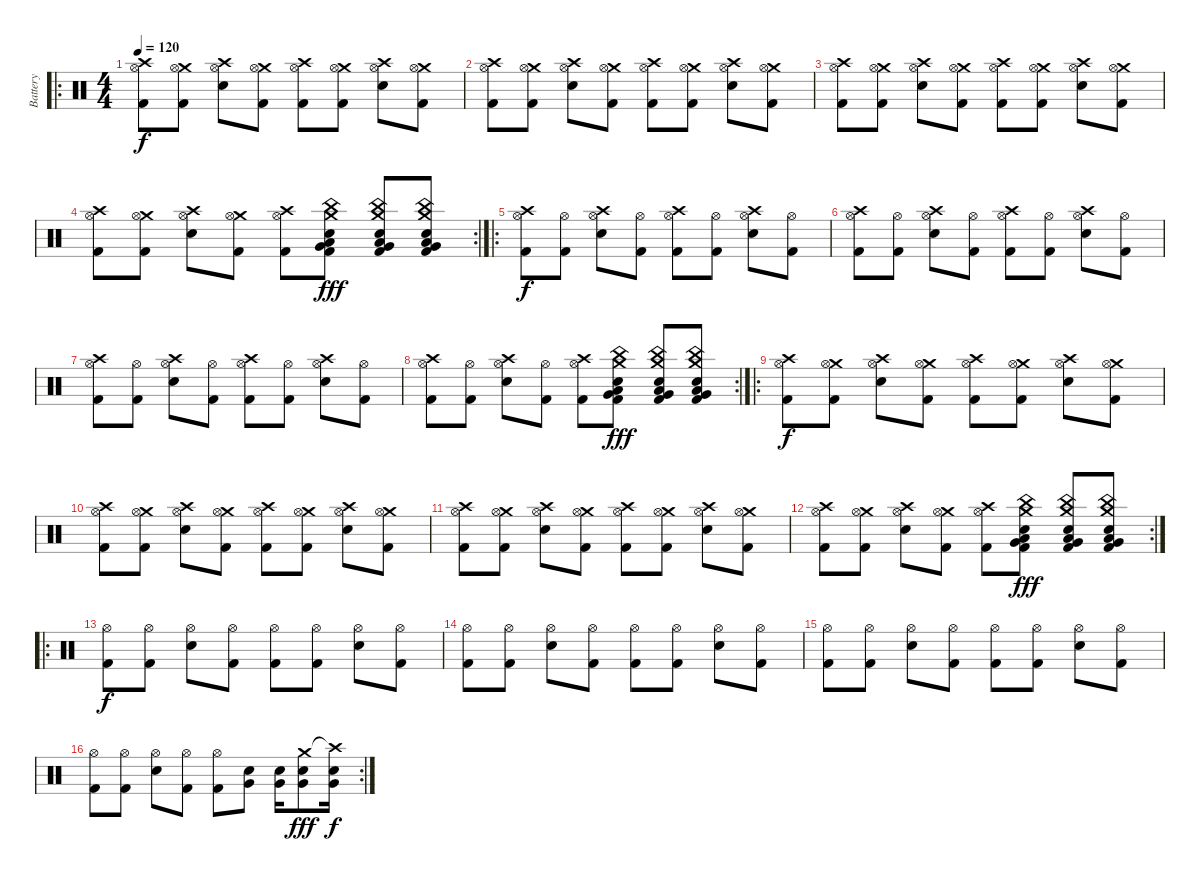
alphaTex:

\track ("Battery" "Battery") {instrument percussion}
\staff {score}
\articulation defaults
\ro
\ts (4 4)
\tempo 120
\clef neutral
\ks c
("Crash high (hit)" "Hi-Hat (open)" "Kick (hit) 2").8{dy f} ("Crash medium (hit)" "Hi-Hat (open)" "Kick (hit) 2").8 ("Crash high (hit)" "Hi-Hat (open)" "Electric Snare (hit)").8 ("Crash medium (hit)" "Hi-Hat (open)" "Kick (hit) 2").8 ("Crash high (hit)" "Hi-Hat (open)" "Kick (hit) 2").8 ("Crash medium (hit)" "Hi-Hat (open)" "Kick (hit) 2").8 ("Crash high (hit)" "Hi-Hat (open)" "Electric Snare (hit)").8 ("Crash medium (hit)" "Hi-Hat (open)" "Kick (hit) 2").8 |
("Crash high (hit)" "Hi-Hat (open)" "Kick (hit) 2").8 ("Crash medium (hit)" "Hi-Hat (open)" "Kick (hit) 2").8 ("Crash high (hit)" "Hi-Hat (open)" "Electric Snare (hit)").8 ("Crash medium (hit)" "Hi-Hat (open)" "Kick (hit) 2").8 ("Crash high (hit)" "Hi-Hat (open)" "Kick (hit) 2").8 ("Crash medium (hit)" "Hi-Hat (open)" "Kick (hit) 2").8 ("Crash high (hit)" "Hi-Hat (open)" "Electric Snare (hit)").8 ("Crash medium (hit)" "Hi-Hat (open)" "Kick (hit) 2").8 |
("Crash high (hit)" "Hi-Hat (open)" "Kick (hit) 2").8 ("Crash medium (hit)" "Hi-Hat (open)" "Kick (hit) 2").8 ("Crash high (hit)" "Hi-Hat (open)" "Electric Snare (hit)").8 ("Crash medium (hit)" "Hi-Hat (open)" "Kick (hit) 2").8 ("Crash high (hit)" "Hi-Hat (open)" "Kick (hit) 2").8 ("Crash medium (hit)" "Hi-Hat (open)" "Kick (hit) 2").8 ("Crash high (hit)" "Hi-Hat (open)" "Electric Snare (hit)").8 ("Crash medium (hit)" "Hi-Hat (open)" "Kick (hit) 2").8 |
\rc 2
("Crash high (hit)" "Hi-Hat (open)" "Kick (hit) 2").8 ("Crash medium (hit)" "Hi-Hat (open)" "Kick (hit) 2").8 ("Crash high (hit)" "Hi-Hat (open)" "Electric Snare (hit)").8 ("Crash medium (hit)" "Hi-Hat (open)" "Kick (hit) 2").8 ("Crash high (hit)" "Hi-Hat (open)" "Kick (hit) 2").8 ("China (hit)" "Crash medium (hit)" "Kick (hit) 2" "Low Floor Tom (hit)" "Very Low Tom (hit)" "Electric Snare (hit)").8{dy fff} ("China (hit)" "Crash medium (hit)" "Kick (hit) 2" "Low Floor Tom (hit)" "Very Low Tom (hit)" "Electric Snare (hit)").8 ("China (hit)" "Crash medium (hit)" "Kick (hit) 2" "Low Floor Tom (hit)" "Very Low Tom (hit)" "Electric Snare (hit)").8 |
\ro
("Crash high (hit)" "Hi-Hat (open)" "Kick (hit) 2").8{dy f} ("Hi-Hat (open)" "Kick (hit) 2").8 ("Crash high (hit)" "Hi-Hat (open)" "Electric Snare (hit)").8 ("Hi-Hat (open)" "Kick (hit) 2").8 ("Crash high (hit)" "Hi-Hat (open)" "Kick (hit) 2").8 ("Hi-Hat (open)" "Kick (hit) 2").8 ("Crash high (hit)" "Hi-Hat (open)" "Electric Snare (hit)").8 ("Hi-Hat (open)" "Kick (hit) 2").8 |
("Crash high (hit)" "Hi-Hat (open)" "Kick (hit) 2").8 ("Hi-Hat (open)" "Kick (hit) 2").8 ("Crash high (hit)" "Hi-Hat (open)" "Electric Snare (hit)").8 ("Hi-Hat (open)" "Kick (hit) 2").8 ("Crash high (hit)" "Hi-Hat (open)" "Kick (hit) 2").8 ("Hi-Hat (open)" "Kick (hit) 2").8 ("Crash high (hit)" "Hi-Hat (open)" "Electric Snare (hit)").8 ("Hi-Hat (open)" "Kick (hit) 2").8 |
("Crash high (hit)" "Hi-Hat (open)" "Kick (hit) 2").8 ("Hi-Hat (open)" "Kick (hit) 2").8 ("Crash high (hit)" "Hi-Hat (open)" "Electric Snare (hit)").8 ("Hi-Hat (open)" "Kick (hit) 2").8 ("Crash high (hit)" "Hi-Hat (open)" "Kick (hit) 2").8 ("Hi-Hat (open)" "Kick (hit) 2").8 ("Crash high (hit)" "Hi-Hat (open)" "Electric Snare (hit)").8 ("Hi-Hat (open)" "Kick (hit) 2").8 |
\rc 2
("Crash high (hit)" "Hi-Hat (open)" "Kick (hit) 2").8 ("Hi-Hat (open)" "Kick (hit) 2").8 ("Crash high (hit)" "Hi-Hat (open)" "Electric Snare (hit)").8 ("Hi-Hat (open)" "Kick (hit) 2").8 ("Crash high (hit)" "Hi-Hat (open)" "Kick (hit) 2").8 ("China (hit)" "Crash medium (hit)" "Kick (hit) 2" "Low Floor Tom (hit)" "Very Low Tom (hit)" "Electric Snare (hit)").8{dy fff} ("China (hit)" "Crash medium (hit)" "Kick (hit) 2" "Low Floor Tom (hit)" "Very Low Tom (hit)" "Electric Snare (hit)").8 ("China (hit)" "Crash medium (hit)" "Kick (hit) 2" "Low Floor Tom (hit)" "Very Low Tom (hit)" "Electric Snare (hit)").8 |
\ro
("Crash high (hit)" "Hi-Hat (open)" "Kick (hit) 2").8{dy f} ("Crash medium (hit)" "Hi-Hat (open)" "Kick (hit) 2").8 ("Crash high (hit)" "Hi-Hat (open)" "Electric Snare (hit)").8 ("Crash medium (hit)" "Hi-Hat (open)" "Kick (hit) 2").8 ("Crash high (hit)" "Hi-Hat (open)" "Kick (hit) 2").8 ("Crash medium (hit)" "Hi-Hat (open)" "Kick (hit) 2").8 ("Crash high (hit)" "Hi-Hat (open)" "Electric Snare (hit)").8 ("Crash medium (hit)" "Hi-Hat (open)" "Kick (hit) 2").8 |
("Crash high (hit)" "Hi-Hat (open)" "Kick (hit) 2").8 ("Crash medium (hit)" "Hi-Hat (open)" "Kick (hit) 2").8 ("Crash high (hit)" "Hi-Hat (open)" "Electric Snare (hit)").8 ("Crash medium (hit)" "Hi-Hat (open)" "Kick (hit) 2").8 ("Crash high (hit)" "Hi-Hat (open)" "Kick (hit) 2").8 ("Crash medium (hit)" "Hi-Hat (open)" "Kick (hit) 2").8 ("Crash high (hit)" "Hi-Hat (open)" "Electric Snare (hit)").8 ("Crash medium (hit)" "Hi-Hat (open)" "Kick (hit) 2").8 |
("Crash high (hit)" "Hi-Hat (open)" "Kick (hit) 2").8 ("Crash medium (hit)" "Hi-Hat (open)" "Kick (hit) 2").8 ("Crash high (hit)" "Hi-Hat (open)" "Electric Snare (hit)").8 ("Crash medium (hit)" "Hi-Hat (open)" "Kick (hit) 2").8 ("Crash high (hit)" "Hi-Hat (open)" "Kick (hit) 2").8 ("Crash medium (hit)" "Hi-Hat (open)" "Kick (hit) 2").8 ("Crash high (hit)" "Hi-Hat (open)" "Electric Snare (hit)").8 ("Crash medium (hit)" "Hi-Hat (open)" "Kick (hit) 2").8 |
\rc 2
("Crash high (hit)" "Hi-Hat (open)" "Kick (hit) 2").8 ("Crash medium (hit)" "Hi-Hat (open)" "Kick (hit) 2").8 ("Crash high (hit)" "Hi-Hat (open)" "Electric Snare (hit)").8 ("Crash medium (hit)" "Hi-Hat (open)" "Kick (hit) 2").8 ("Crash high (hit)" "Hi-Hat (open)" "Kick (hit) 2").8 ("China (hit)" "Crash medium (hit)" "Kick (hit) 2" "Low Floor Tom (hit)" "Very Low Tom (hit)" "Electric Snare (hit)").8{dy fff} ("China (hit)" "Crash medium (hit)" "Kick (hit) 2" "Low Floor Tom (hit)" "Very Low Tom (hit)" "Electric Snare (hit)").8 ("China (hit)" "Crash medium (hit)" "Kick (hit) 2" "Low Floor Tom (hit)" "Very Low Tom (hit)" "Electric Snare (hit)").8 |
\ro
("Hi-Hat (open)" "Kick (hit) 2").8{dy f} ("Hi-Hat (open)" "Kick (hit) 2").8 ("Hi-Hat (open)" "Electric Snare (hit)").8 ("Hi-Hat (open)" "Kick (hit) 2").8 ("Hi-Hat (open)" "Kick (hit) 2").8 ("Hi-Hat (open)" "Kick (hit) 2").8 ("Hi-Hat (open)" "Electric Snare (hit)").8 ("Hi-Hat (open)" "Kick (hit) 2").8 |
("Hi-Hat (open)" "Kick (hit) 2").8 ("Hi-Hat (open)" "Kick (hit) 2").8 ("Hi-Hat (open)" "Electric Snare (hit)").8 ("Hi-Hat (open)" "Kick (hit) 2").8 ("Hi-Hat (open)" "Kick (hit) 2").8 ("Hi-Hat (open)" "Kick (hit) 2").8 ("Hi-Hat (open)" "Electric Snare (hit)").8 ("Hi-Hat (open)" "Kick (hit) 2").8 |
("Hi-Hat (open)" "Kick (hit) 2").8 ("Hi-Hat (open)" "Kick (hit) 2").8 ("Hi-Hat (open)" "Electric Snare (hit)").8 ("Hi-Hat (open)" "Kick (hit) 2").8 ("Hi-Hat (open)" "Kick (hit) 2").8 ("Hi-Hat (open)" "Kick (hit) 2").8 ("Hi-Hat (open)" "Electric Snare (hit)").8 ("Hi-Hat (open)" "Kick (hit) 2").8 |
\rc 2
("Hi-Hat (open)" "Kick (hit) 2").8 ("Hi-Hat (open)" "Kick (hit) 2").8 ("Hi-Hat (open)" "Electric Snare (hit)").8 ("Hi-Hat (open)" "Kick (hit) 2").8 ("Hi-Hat (open)" "Kick (hit) 2").8 ("Very Low Tom (hit)" "Electric Snare (hit)").8 ("Very Low Tom (hit)" "Electric Snare (hit)").16 ("Crash medium (hit)" "Very Low Tom (hit)" "Electric Snare (hit)").8{dy fff} ("Crash high (hit)"{t} "Very Low Tom (hit)" "Electric Snare (hit)").16{dy f}
